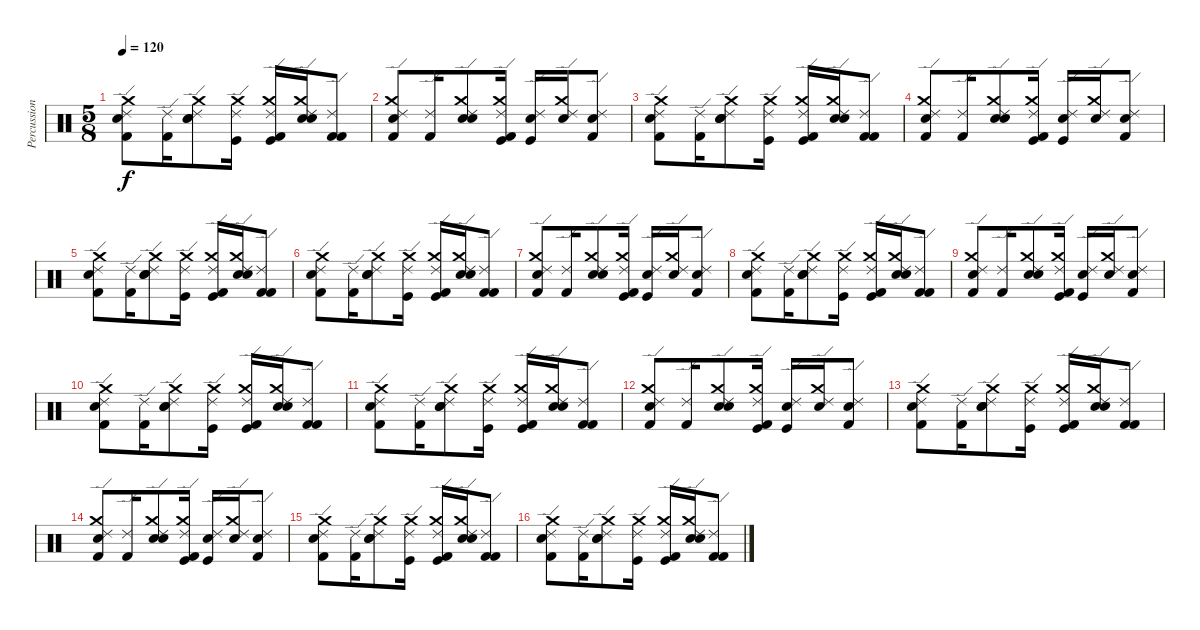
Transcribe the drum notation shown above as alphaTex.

\track ("Percussion" "Percussion") {instrument percussion}
\staff {score}
\articulation defaults
\ts (5 8)
\tempo 120
\clef neutral
\ks c
("Electric Snare (hit)" "Kick (hit) 2" "Crash medium (hit)" "Ride (edge) 2").8{dy f} ("Kick (hit) 2" "Ride (edge) 2").16 ("Electric Snare (hit)" "Crash medium (hit)" "Electric Snare (hit)" "Ride (edge) 2").8 ("Crash medium (hit)" "Kick (hit)" "Ride (edge) 2").16 ("Crash medium (hit)" "Kick (hit) 2" "Kick (hit)" "Ride (edge) 2").16 ("Electric Snare (hit)" "Crash medium (hit)" "Electric Snare (hit)" "Ride (edge) 2").16 ("Kick (hit) 2" "Kick (hit) 2" "Ride (edge) 2").8 |
("Electric Snare (hit)" "Kick (hit) 2" "Crash medium (hit)" "Ride (edge) 2").8 ("Kick (hit) 2" "Ride (edge) 2").16 ("Electric Snare (hit)" "Crash medium (hit)" "Electric Snare (hit)" "Ride (edge) 2").8 ("Crash medium (hit)" "Kick (hit) 2" "Kick (hit)" "Ride (edge) 2").16 ("Electric Snare (hit)" "Kick (hit)" "Ride (edge) 2").16 ("Crash medium (hit)" "Electric Snare (hit)" "Ride (edge) 2").16 ("Electric Snare (hit)" "Kick (hit) 2" "Ride (edge) 2").8 |
("Electric Snare (hit)" "Kick (hit) 2" "Crash medium (hit)" "Ride (edge) 2").8 ("Kick (hit) 2" "Ride (edge) 2").16 ("Electric Snare (hit)" "Crash medium (hit)" "Electric Snare (hit)" "Ride (edge) 2").8 ("Crash medium (hit)" "Kick (hit)" "Ride (edge) 2").16 ("Crash medium (hit)" "Kick (hit) 2" "Kick (hit)" "Ride (edge) 2").16 ("Electric Snare (hit)" "Crash medium (hit)" "Electric Snare (hit)" "Ride (edge) 2").16 ("Kick (hit) 2" "Kick (hit) 2" "Ride (edge) 2").8 |
("Electric Snare (hit)" "Kick (hit) 2" "Crash medium (hit)" "Ride (edge) 2").8 ("Kick (hit) 2" "Ride (edge) 2").16 ("Electric Snare (hit)" "Crash medium (hit)" "Electric Snare (hit)" "Ride (edge) 2").8 ("Crash medium (hit)" "Kick (hit) 2" "Kick (hit)" "Ride (edge) 2").16 ("Electric Snare (hit)" "Kick (hit)" "Ride (edge) 2").16 ("Crash medium (hit)" "Electric Snare (hit)" "Ride (edge) 2").16 ("Electric Snare (hit)" "Kick (hit) 2" "Ride (edge) 2").8 |
("Electric Snare (hit)" "Kick (hit) 2" "Crash medium (hit)" "Ride (edge) 2").8 ("Kick (hit) 2" "Ride (edge) 2").16 ("Electric Snare (hit)" "Crash medium (hit)" "Electric Snare (hit)" "Ride (edge) 2").8 ("Crash medium (hit)" "Kick (hit)" "Ride (edge) 2").16 ("Crash medium (hit)" "Kick (hit) 2" "Kick (hit)" "Ride (edge) 2").16 ("Electric Snare (hit)" "Crash medium (hit)" "Electric Snare (hit)" "Ride (edge) 2").16 ("Kick (hit) 2" "Kick (hit) 2" "Ride (edge) 2").8 |
("Electric Snare (hit)" "Kick (hit) 2" "Crash medium (hit)" "Ride (edge) 2").8 ("Kick (hit) 2" "Ride (edge) 2").16 ("Electric Snare (hit)" "Crash medium (hit)" "Electric Snare (hit)" "Ride (edge) 2").8 ("Crash medium (hit)" "Kick (hit)" "Ride (edge) 2").16 ("Crash medium (hit)" "Kick (hit) 2" "Kick (hit)" "Ride (edge) 2").16 ("Electric Snare (hit)" "Crash medium (hit)" "Electric Snare (hit)" "Ride (edge) 2").16 ("Kick (hit) 2" "Kick (hit) 2" "Ride (edge) 2").8 |
("Electric Snare (hit)" "Kick (hit) 2" "Crash medium (hit)" "Ride (edge) 2").8 ("Kick (hit) 2" "Ride (edge) 2").16 ("Electric Snare (hit)" "Crash medium (hit)" "Electric Snare (hit)" "Ride (edge) 2").8 ("Crash medium (hit)" "Kick (hit) 2" "Kick (hit)" "Ride (edge) 2").16 ("Electric Snare (hit)" "Kick (hit)" "Ride (edge) 2").16 ("Crash medium (hit)" "Electric Snare (hit)" "Ride (edge) 2").16 ("Electric Snare (hit)" "Kick (hit) 2" "Ride (edge) 2").8 |
("Electric Snare (hit)" "Kick (hit) 2" "Crash medium (hit)" "Ride (edge) 2").8 ("Kick (hit) 2" "Ride (edge) 2").16 ("Electric Snare (hit)" "Crash medium (hit)" "Electric Snare (hit)" "Ride (edge) 2").8 ("Crash medium (hit)" "Kick (hit)" "Ride (edge) 2").16 ("Crash medium (hit)" "Kick (hit) 2" "Kick (hit)" "Ride (edge) 2").16 ("Electric Snare (hit)" "Crash medium (hit)" "Electric Snare (hit)" "Ride (edge) 2").16 ("Kick (hit) 2" "Kick (hit) 2" "Ride (edge) 2").8 |
("Electric Snare (hit)" "Kick (hit) 2" "Crash medium (hit)" "Ride (edge) 2").8 ("Kick (hit) 2" "Ride (edge) 2").16 ("Electric Snare (hit)" "Crash medium (hit)" "Electric Snare (hit)" "Ride (edge) 2").8 ("Crash medium (hit)" "Kick (hit) 2" "Kick (hit)" "Ride (edge) 2").16 ("Electric Snare (hit)" "Kick (hit)" "Ride (edge) 2").16 ("Crash medium (hit)" "Electric Snare (hit)" "Ride (edge) 2").16 ("Electric Snare (hit)" "Kick (hit) 2" "Ride (edge) 2").8 |
("Electric Snare (hit)" "Kick (hit) 2" "Crash medium (hit)" "Ride (edge) 2").8 ("Kick (hit) 2" "Ride (edge) 2").16 ("Electric Snare (hit)" "Crash medium (hit)" "Electric Snare (hit)" "Ride (edge) 2").8 ("Crash medium (hit)" "Kick (hit)" "Ride (edge) 2").16 ("Crash medium (hit)" "Kick (hit) 2" "Kick (hit)" "Ride (edge) 2").16 ("Electric Snare (hit)" "Crash medium (hit)" "Electric Snare (hit)" "Ride (edge) 2").16 ("Kick (hit) 2" "Kick (hit) 2" "Ride (edge) 2").8 |
("Electric Snare (hit)" "Kick (hit) 2" "Crash medium (hit)" "Ride (edge) 2").8 ("Kick (hit) 2" "Ride (edge) 2").16 ("Electric Snare (hit)" "Crash medium (hit)" "Electric Snare (hit)" "Ride (edge) 2").8 ("Crash medium (hit)" "Kick (hit)" "Ride (edge) 2").16 ("Crash medium (hit)" "Kick (hit) 2" "Kick (hit)" "Ride (edge) 2").16 ("Electric Snare (hit)" "Crash medium (hit)" "Electric Snare (hit)" "Ride (edge) 2").16 ("Kick (hit) 2" "Kick (hit) 2" "Ride (edge) 2").8 |
("Electric Snare (hit)" "Kick (hit) 2" "Crash medium (hit)" "Ride (edge) 2").8 ("Kick (hit) 2" "Ride (edge) 2").16 ("Electric Snare (hit)" "Crash medium (hit)" "Electric Snare (hit)" "Ride (edge) 2").8 ("Crash medium (hit)" "Kick (hit) 2" "Kick (hit)" "Ride (edge) 2").16 ("Electric Snare (hit)" "Kick (hit)" "Ride (edge) 2").16 ("Crash medium (hit)" "Electric Snare (hit)" "Ride (edge) 2").16 ("Electric Snare (hit)" "Kick (hit) 2" "Ride (edge) 2").8 |
("Electric Snare (hit)" "Kick (hit) 2" "Crash medium (hit)" "Ride (edge) 2").8 ("Kick (hit) 2" "Ride (edge) 2").16 ("Electric Snare (hit)" "Crash medium (hit)" "Electric Snare (hit)" "Ride (edge) 2").8 ("Crash medium (hit)" "Kick (hit)" "Ride (edge) 2").16 ("Crash medium (hit)" "Kick (hit) 2" "Kick (hit)" "Ride (edge) 2").16 ("Electric Snare (hit)" "Crash medium (hit)" "Electric Snare (hit)" "Ride (edge) 2").16 ("Kick (hit) 2" "Kick (hit) 2" "Ride (edge) 2").8 |
("Electric Snare (hit)" "Kick (hit) 2" "Crash medium (hit)" "Ride (edge) 2").8 ("Kick (hit) 2" "Ride (edge) 2").16 ("Electric Snare (hit)" "Crash medium (hit)" "Electric Snare (hit)" "Ride (edge) 2").8 ("Crash medium (hit)" "Kick (hit) 2" "Kick (hit)" "Ride (edge) 2").16 ("Electric Snare (hit)" "Kick (hit)" "Ride (edge) 2").16 ("Crash medium (hit)" "Electric Snare (hit)" "Ride (edge) 2").16 ("Electric Snare (hit)" "Kick (hit) 2" "Ride (edge) 2").8 |
("Electric Snare (hit)" "Kick (hit) 2" "Crash medium (hit)" "Ride (edge) 2").8 ("Kick (hit) 2" "Ride (edge) 2").16 ("Electric Snare (hit)" "Crash medium (hit)" "Electric Snare (hit)" "Ride (edge) 2").8 ("Crash medium (hit)" "Kick (hit)" "Ride (edge) 2").16 ("Crash medium (hit)" "Kick (hit) 2" "Kick (hit)" "Ride (edge) 2").16 ("Electric Snare (hit)" "Crash medium (hit)" "Electric Snare (hit)" "Ride (edge) 2").16 ("Kick (hit) 2" "Kick (hit) 2" "Ride (edge) 2").8 |
("Electric Snare (hit)" "Kick (hit) 2" "Crash medium (hit)" "Ride (edge) 2").8 ("Kick (hit) 2" "Ride (edge) 2").16 ("Electric Snare (hit)" "Crash medium (hit)" "Electric Snare (hit)" "Ride (edge) 2").8 ("Crash medium (hit)" "Kick (hit)" "Ride (edge) 2").16 ("Crash medium (hit)" "Kick (hit) 2" "Kick (hit)" "Ride (edge) 2").16 ("Electric Snare (hit)" "Crash medium (hit)" "Electric Snare (hit)" "Ride (edge) 2").16 ("Kick (hit) 2" "Kick (hit) 2" "Ride (edge) 2").8
